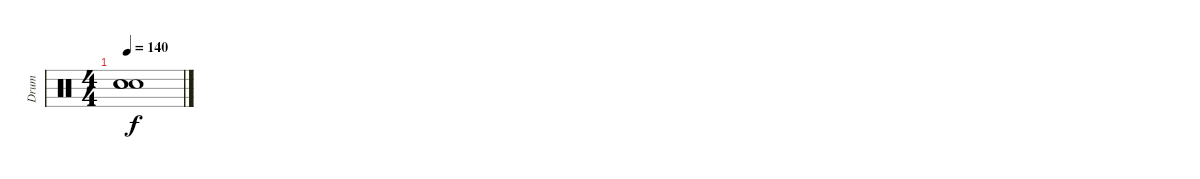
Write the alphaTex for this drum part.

\track ("Drum" "Drum") {instrument percussion}
\staff {score}
\articulation defaults
\ts (4 4)
\tempo 140
\clef neutral
\ks c
("Snare (hit)"{t} "Snare (hit)"{t} "Snare (hit)"{t}).1{dy f}
